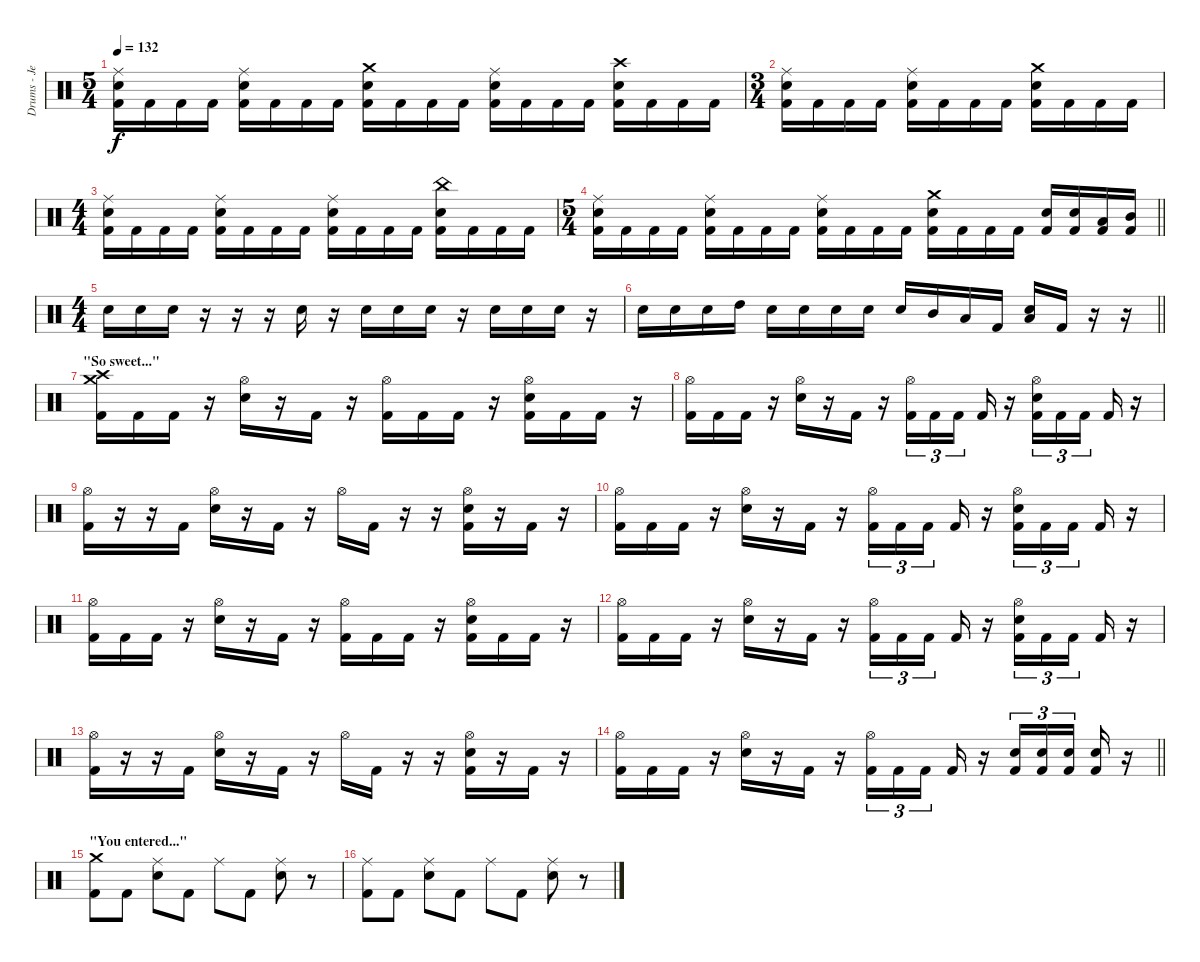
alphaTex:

\track ("Drums - Jeroen" "Drums - Je") {instrument percussion}
\staff {score}
\articulation defaults
\ts (5 4)
\tempo 132
\clef neutral
\ks c
("Ride (middle)" "Electric Snare (hit)" "Kick (hit) 2").16{dy f} "Kick (hit) 2".16 "Kick (hit) 2".16 "Kick (hit) 2".16 ("Ride (middle)" "Electric Snare (hit)" "Kick (hit) 2").16 "Kick (hit) 2".16 "Kick (hit) 2".16 "Kick (hit) 2".16 ("Crash medium (hit)" "Electric Snare (hit)" "Kick (hit) 2").16 "Kick (hit) 2".16 "Kick (hit) 2".16 "Kick (hit) 2".16 ("Ride (middle)" "Electric Snare (hit)" "Kick (hit) 2").16 "Kick (hit) 2".16 "Kick (hit) 2".16 "Kick (hit) 2".16 ("Crash high (hit)" "Electric Snare (hit)" "Kick (hit) 2").16 "Kick (hit) 2".16 "Kick (hit) 2".16 "Kick (hit) 2".16 |
\ts (3 4)
("Ride (middle)" "Electric Snare (hit)" "Kick (hit) 2").16 "Kick (hit) 2".16 "Kick (hit) 2".16 "Kick (hit) 2".16 ("Ride (middle)" "Electric Snare (hit)" "Kick (hit) 2").16 "Kick (hit) 2".16 "Kick (hit) 2".16 "Kick (hit) 2".16 ("Crash medium (hit)" "Electric Snare (hit)" "Kick (hit) 2").16 "Kick (hit) 2".16 "Kick (hit) 2".16 "Kick (hit) 2".16 |
\ts (4 4)
("Ride (middle)" "Electric Snare (hit)" "Kick (hit) 2").16 "Kick (hit) 2".16 "Kick (hit) 2".16 "Kick (hit) 2".16 ("Ride (middle)" "Electric Snare (hit)" "Kick (hit) 2").16 "Kick (hit) 2".16 "Kick (hit) 2".16 "Kick (hit) 2".16 ("Ride (middle)" "Electric Snare (hit)" "Kick (hit) 2").16 "Kick (hit) 2".16 "Kick (hit) 2".16 "Kick (hit) 2".16 ("China (hit)" "Electric Snare (hit)" "Kick (hit) 2").16 "Kick (hit) 2".16 "Kick (hit) 2".16 "Kick (hit) 2".16 |
\ts (5 4)
\barLineRight lightlight
("Ride (middle)" "Electric Snare (hit)" "Kick (hit) 2").16 "Kick (hit) 2".16 "Kick (hit) 2".16 "Kick (hit) 2".16 ("Ride (middle)" "Electric Snare (hit)" "Kick (hit) 2").16 "Kick (hit) 2".16 "Kick (hit) 2".16 "Kick (hit) 2".16 ("Ride (middle)" "Electric Snare (hit)" "Kick (hit) 2").16 "Kick (hit) 2".16 "Kick (hit) 2".16 "Kick (hit) 2".16 ("Crash medium (hit)" "Electric Snare (hit)" "Kick (hit) 2").16 "Kick (hit) 2".16 "Kick (hit) 2".16 "Kick (hit) 2".16 ("Electric Snare (hit)" "Kick (hit) 2").16 ("Electric Snare (hit)" "Kick (hit) 2").16 ("Low Tom (hit)" "Kick (hit) 2").16 ("Mid Tom (hit)" "Kick (hit) 2").16 |
\ts (4 4)
\section ("" "")
"Electric Snare (hit)".16 "Electric Snare (hit)".16 "Electric Snare (hit)".16 r.16 r.16 r.16 "Electric Snare (hit)".16 r.16 "Electric Snare (hit)".16 "Electric Snare (hit)".16 "Electric Snare (hit)".16 r.16 "Electric Snare (hit)".16 "Electric Snare (hit)".16 "Electric Snare (hit)".16 r.16 |
\barLineRight lightlight "Electric Snare (hit)".16 "Electric Snare (hit)".16 "Electric Snare (hit)".16 "High Tom (hit)".16 "Electric Snare (hit)".16 "Electric Snare (hit)".16 "Electric Snare (hit)".16 "Electric Snare (hit)".16 "Electric Snare (hit)".16 "Mid Tom (hit)".16 "Low Tom (hit)".16 "Kick (hit) 2".16
("Low Floor Tom (hit)" "Electric Snare (hit)").16 "Kick (hit) 2".16 r.16 r.16 |
\section ("" "\"So sweet...\"")
("Crash medium (hit)" "Crash high (hit)" "Kick (hit) 2").16 "Kick (hit) 2".16 "Kick (hit) 2".16 r.16 ("Hi-Hat (open)" "Electric Snare (hit)").16 r.16 "Kick (hit) 2".16 r.16 ("Hi-Hat (open)" "Kick (hit) 2").16 "Kick (hit) 2".16 "Kick (hit) 2".16 r.16 ("Hi-Hat (open)" "Electric Snare (hit)" "Kick (hit) 2").16 "Kick (hit) 2".16 "Kick (hit) 2".16 r.16 |
("Hi-Hat (open)" "Kick (hit) 2").16 "Kick (hit) 2".16 "Kick (hit) 2".16 r.16 ("Hi-Hat (open)" "Electric Snare (hit)").16 r.16 "Kick (hit) 2".16 r.16 ("Hi-Hat (open)" "Kick (hit) 2").16{tu (3 2)} "Kick (hit) 2".16{tu (3 2)} "Kick (hit) 2".16{tu (3 2) beam splitsecondary} "Kick (hit) 2".16 r.16 ("Hi-Hat (open)" "Electric Snare (hit)" "Kick (hit) 2").16{tu (3 2)} "Kick (hit) 2".16{tu (3 2)} "Kick (hit) 2".16{tu (3 2) beam splitsecondary} "Kick (hit) 2".16 r.16 |
("Hi-Hat (open)" "Kick (hit) 2").16 r.16 r.16 "Kick (hit) 2".16 ("Hi-Hat (open)" "Electric Snare (hit)").16 r.16 "Kick (hit) 2".16 r.16 "Hi-Hat (open)".16 "Kick (hit) 2".16 r.16 r.16 ("Hi-Hat (open)" "Electric Snare (hit)" "Kick (hit) 2").16 r.16 "Kick (hit) 2".16 r.16 |
("Hi-Hat (open)" "Kick (hit) 2").16 "Kick (hit) 2".16 "Kick (hit) 2".16 r.16 ("Hi-Hat (open)" "Electric Snare (hit)").16 r.16 "Kick (hit) 2".16 r.16 ("Hi-Hat (open)" "Kick (hit) 2").16{tu (3 2)} "Kick (hit) 2".16{tu (3 2)} "Kick (hit) 2".16{tu (3 2) beam splitsecondary} "Kick (hit) 2".16 r.16 ("Hi-Hat (open)" "Electric Snare (hit)" "Kick (hit) 2").16{tu (3 2)} "Kick (hit) 2".16{tu (3 2)} "Kick (hit) 2".16{tu (3 2) beam splitsecondary} "Kick (hit) 2".16 r.16 |
("Hi-Hat (open)" "Kick (hit) 2").16 "Kick (hit) 2".16 "Kick (hit) 2".16 r.16 ("Hi-Hat (open)" "Electric Snare (hit)").16 r.16 "Kick (hit) 2".16 r.16 ("Hi-Hat (open)" "Kick (hit) 2").16 "Kick (hit) 2".16 "Kick (hit) 2".16 r.16 ("Hi-Hat (open)" "Electric Snare (hit)" "Kick (hit) 2").16 "Kick (hit) 2".16 "Kick (hit) 2".16 r.16 |
("Hi-Hat (open)" "Kick (hit) 2").16 "Kick (hit) 2".16 "Kick (hit) 2".16 r.16 ("Hi-Hat (open)" "Electric Snare (hit)").16 r.16 "Kick (hit) 2".16 r.16 ("Hi-Hat (open)" "Kick (hit) 2").16{tu (3 2)} "Kick (hit) 2".16{tu (3 2)} "Kick (hit) 2".16{tu (3 2) beam splitsecondary} "Kick (hit) 2".16 r.16 ("Hi-Hat (open)" "Electric Snare (hit)" "Kick (hit) 2").16{tu (3 2)} "Kick (hit) 2".16{tu (3 2)} "Kick (hit) 2".16{tu (3 2) beam splitsecondary} "Kick (hit) 2".16 r.16 |
("Hi-Hat (open)" "Kick (hit) 2").16 r.16 r.16 "Kick (hit) 2".16 ("Hi-Hat (open)" "Electric Snare (hit)").16 r.16 "Kick (hit) 2".16 r.16 "Hi-Hat (open)".16 "Kick (hit) 2".16 r.16 r.16 ("Hi-Hat (open)" "Electric Snare (hit)" "Kick (hit) 2").16 r.16 "Kick (hit) 2".16 r.16 |
\barLineRight lightlight
("Hi-Hat (open)" "Kick (hit) 2").16 "Kick (hit) 2".16 "Kick (hit) 2".16 r.16 ("Hi-Hat (open)" "Electric Snare (hit)").16 r.16 "Kick (hit) 2".16 r.16 ("Hi-Hat (open)" "Kick (hit) 2").16{tu (3 2)} "Kick (hit) 2".16{tu (3 2)} "Kick (hit) 2".16{tu (3 2) beam splitsecondary} "Kick (hit) 2".16 r.16 ("Electric Snare (hit)" "Kick (hit) 2").16{tu (3 2)} ("Electric Snare (hit)" "Kick (hit) 2").16{tu (3 2)} ("Electric Snare (hit)" "Kick (hit) 2").16{tu (3 2) beam splitsecondary} ("Electric Snare (hit)" "Kick (hit) 2").16 r.16 |
\section ("" "\"You entered...\"")
("Crash medium (hit)" "Kick (hit) 2").8 "Kick (hit) 2".8 ("Ride (middle)" "Electric Snare (hit)").8 "Kick (hit) 2".8 "Ride (middle)".8 "Kick (hit) 2".8 ("Ride (middle)" "Electric Snare (hit)").8 r.8 |
("Ride (middle)" "Kick (hit) 2").8 "Kick (hit) 2".8 ("Ride (middle)" "Electric Snare (hit)").8 "Kick (hit) 2".8 "Ride (middle)".8 "Kick (hit) 2".8 ("Ride (middle)" "Electric Snare (hit)").8 r.8
